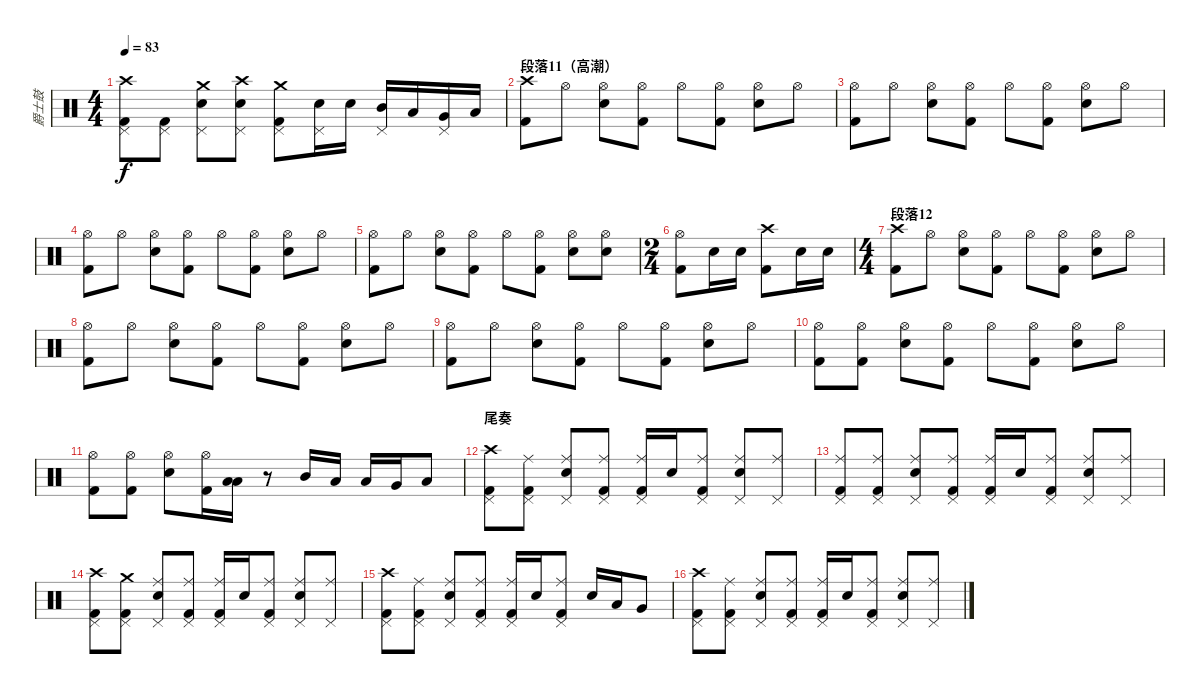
\track ("爵士鼓" "爵士鼓") {instrument percussion}
\staff {score}
\articulation defaults
\ts (4 4)
\tempo 83
\clef neutral
\ks c
("Crash high (hit)" "Pedal Hi-Hat (hit)" "Kick (hit) 2").8{dy f} ("Pedal Hi-Hat (hit)" "Kick (hit) 2").8 ("Crash medium (hit)" "Pedal Hi-Hat (hit)" "Electric Snare (hit)").8 ("Crash high (hit)" "Pedal Hi-Hat (hit)" "Electric Snare (hit)").8 ("Crash medium (hit)" "Pedal Hi-Hat (hit)" "Kick (hit) 2").8 ("Pedal Hi-Hat (hit)" "Electric Snare (hit)").16 "Electric Snare (hit)".16 ("Pedal Hi-Hat (hit)" "Mid Tom (hit)").16 "Low Tom (hit)".16 ("Pedal Hi-Hat (hit)" "Very Low Tom (hit)").16 "Low Floor Tom (hit)".16 |
\section ("" "段落11（高潮）")
("Crash high (hit)" "Kick (hit) 2").8 "Hi-Hat (open)".8 ("Hi-Hat (open)" "Electric Snare (hit)").8 ("Hi-Hat (open)" "Kick (hit) 2").8 "Hi-Hat (open)".8 ("Hi-Hat (open)" "Kick (hit) 2").8 ("Hi-Hat (open)" "Electric Snare (hit)").8 "Hi-Hat (open)".8 |
("Hi-Hat (open)" "Kick (hit) 2").8 "Hi-Hat (open)".8 ("Hi-Hat (open)" "Electric Snare (hit)").8 ("Hi-Hat (open)" "Kick (hit) 2").8 "Hi-Hat (open)".8 ("Hi-Hat (open)" "Kick (hit) 2").8 ("Hi-Hat (open)" "Electric Snare (hit)").8 "Hi-Hat (open)".8 |
("Hi-Hat (open)" "Kick (hit) 2").8 "Hi-Hat (open)".8 ("Hi-Hat (open)" "Electric Snare (hit)").8 ("Hi-Hat (open)" "Kick (hit) 2").8 "Hi-Hat (open)".8 ("Hi-Hat (open)" "Kick (hit) 2").8 ("Hi-Hat (open)" "Electric Snare (hit)").8 "Hi-Hat (open)".8 |
("Hi-Hat (open)" "Kick (hit) 2").8 "Hi-Hat (open)".8 ("Hi-Hat (open)" "Electric Snare (hit)").8 ("Hi-Hat (open)" "Kick (hit) 2").8 "Hi-Hat (open)".8 ("Hi-Hat (open)" "Kick (hit) 2").8 ("Hi-Hat (open)" "Electric Snare (hit)").8 ("Hi-Hat (open)" "Electric Snare (hit)").8 |
\ts (2 4)
("Hi-Hat (open)" "Kick (hit) 2").8 "Electric Snare (hit)".16 "Electric Snare (hit)".16 ("Crash high (hit)" "Kick (hit) 2").8 "Electric Snare (hit)".16 "Electric Snare (hit)".16 |
\ts (4 4)
\section ("" "段落12")
("Crash high (hit)" "Kick (hit) 2").8 "Hi-Hat (open)".8 ("Hi-Hat (open)" "Electric Snare (hit)").8 ("Hi-Hat (open)" "Kick (hit) 2").8 "Hi-Hat (open)".8 ("Hi-Hat (open)" "Kick (hit) 2").8 ("Hi-Hat (open)" "Electric Snare (hit)").8 "Hi-Hat (open)".8 |
("Hi-Hat (open)" "Kick (hit) 2").8 "Hi-Hat (open)".8 ("Hi-Hat (open)" "Electric Snare (hit)").8 ("Hi-Hat (open)" "Kick (hit) 2").8 "Hi-Hat (open)".8 ("Hi-Hat (open)" "Kick (hit) 2").8 ("Hi-Hat (open)" "Electric Snare (hit)").8 "Hi-Hat (open)".8 |
("Hi-Hat (open)" "Kick (hit) 2").8 "Hi-Hat (open)".8 ("Hi-Hat (open)" "Electric Snare (hit)").8 ("Hi-Hat (open)" "Kick (hit) 2").8 "Hi-Hat (open)".8 ("Hi-Hat (open)" "Kick (hit) 2").8 ("Hi-Hat (open)" "Electric Snare (hit)").8 "Hi-Hat (open)".8 |
("Hi-Hat (open)" "Kick (hit) 2").8 ("Hi-Hat (open)" "Kick (hit) 2").8 ("Hi-Hat (open)" "Electric Snare (hit)").8 ("Hi-Hat (open)" "Kick (hit) 2").8 "Hi-Hat (open)".8 ("Hi-Hat (open)" "Kick (hit) 2").8 ("Hi-Hat (open)" "Electric Snare (hit)").8 "Hi-Hat (open)".8 |
("Hi-Hat (open)" "Kick (hit) 2").8 ("Hi-Hat (open)" "Kick (hit) 2").8 ("Hi-Hat (open)" "Electric Snare (hit)").8 ("Hi-Hat (open)" "Kick (hit) 2").16 ("Low Tom (hit)" "Low Tom (hit)").16 r.8 "Mid Tom (hit)".16 "Low Tom (hit)".16 "Low Tom (hit)".16 "Very Low Tom (hit)".16 "Low Floor Tom (hit)".8 |
\section ("" "尾奏")
("Crash high (hit)" "Pedal Hi-Hat (hit)" "Kick (hit) 2").8 ("Ride (middle)" "Pedal Hi-Hat (hit)" "Kick (hit) 2").8 ("Ride (middle)" "Pedal Hi-Hat (hit)" "Electric Snare (hit)").8 ("Ride (middle)" "Pedal Hi-Hat (hit)" "Kick (hit) 2").8 ("Ride (middle)" "Pedal Hi-Hat (hit)" "Kick (hit) 2").16 "Electric Snare (hit)".16 ("Ride (middle)" "Pedal Hi-Hat (hit)" "Kick (hit) 2").8 ("Ride (middle)" "Pedal Hi-Hat (hit)" "Electric Snare (hit)").8 ("Ride (middle)" "Pedal Hi-Hat (hit)").8 |
("Ride (middle)" "Pedal Hi-Hat (hit)" "Kick (hit) 2").8 ("Ride (middle)" "Pedal Hi-Hat (hit)" "Kick (hit) 2").8 ("Ride (middle)" "Pedal Hi-Hat (hit)" "Electric Snare (hit)").8 ("Ride (middle)" "Pedal Hi-Hat (hit)" "Kick (hit) 2").8 ("Ride (middle)" "Pedal Hi-Hat (hit)" "Kick (hit) 2").16 "Electric Snare (hit)".16 ("Ride (middle)" "Pedal Hi-Hat (hit)" "Kick (hit) 2").8 ("Ride (middle)" "Pedal Hi-Hat (hit)" "Electric Snare (hit)").8 ("Ride (middle)" "Pedal Hi-Hat (hit)").8 |
("Crash high (hit)" "Pedal Hi-Hat (hit)" "Kick (hit) 2").8 ("Crash medium (hit)" "Pedal Hi-Hat (hit)" "Kick (hit) 2").8 ("Ride (middle)" "Pedal Hi-Hat (hit)" "Electric Snare (hit)").8 ("Ride (middle)" "Pedal Hi-Hat (hit)" "Kick (hit) 2").8 ("Ride (middle)" "Pedal Hi-Hat (hit)" "Kick (hit) 2").16 "Electric Snare (hit)".16 ("Ride (middle)" "Pedal Hi-Hat (hit)" "Kick (hit) 2").8 ("Ride (middle)" "Pedal Hi-Hat (hit)" "Electric Snare (hit)").8 ("Ride (middle)" "Pedal Hi-Hat (hit)").8 |
("Crash high (hit)" "Pedal Hi-Hat (hit)" "Kick (hit) 2").8 ("Ride (middle)" "Pedal Hi-Hat (hit)" "Kick (hit) 2").8 ("Ride (middle)" "Pedal Hi-Hat (hit)" "Electric Snare (hit)").8 ("Ride (middle)" "Pedal Hi-Hat (hit)" "Kick (hit) 2").8 ("Ride (middle)" "Pedal Hi-Hat (hit)" "Kick (hit) 2").16 "Electric Snare (hit)".16 ("Ride (middle)" "Pedal Hi-Hat (hit)" "Kick (hit) 2").8 "Electric Snare (hit)".16 "Low Tom (hit)".16 "Very Low Tom (hit)".8 |
("Crash high (hit)" "Pedal Hi-Hat (hit)" "Kick (hit) 2").8 ("Ride (middle)" "Pedal Hi-Hat (hit)" "Kick (hit) 2").8 ("Ride (middle)" "Pedal Hi-Hat (hit)" "Electric Snare (hit)").8 ("Ride (middle)" "Pedal Hi-Hat (hit)" "Kick (hit) 2").8 ("Ride (middle)" "Pedal Hi-Hat (hit)" "Kick (hit) 2").16 "Electric Snare (hit)".16 ("Ride (middle)" "Pedal Hi-Hat (hit)" "Kick (hit) 2").8 ("Ride (middle)" "Pedal Hi-Hat (hit)" "Electric Snare (hit)").8 ("Ride (middle)" "Pedal Hi-Hat (hit)").8
